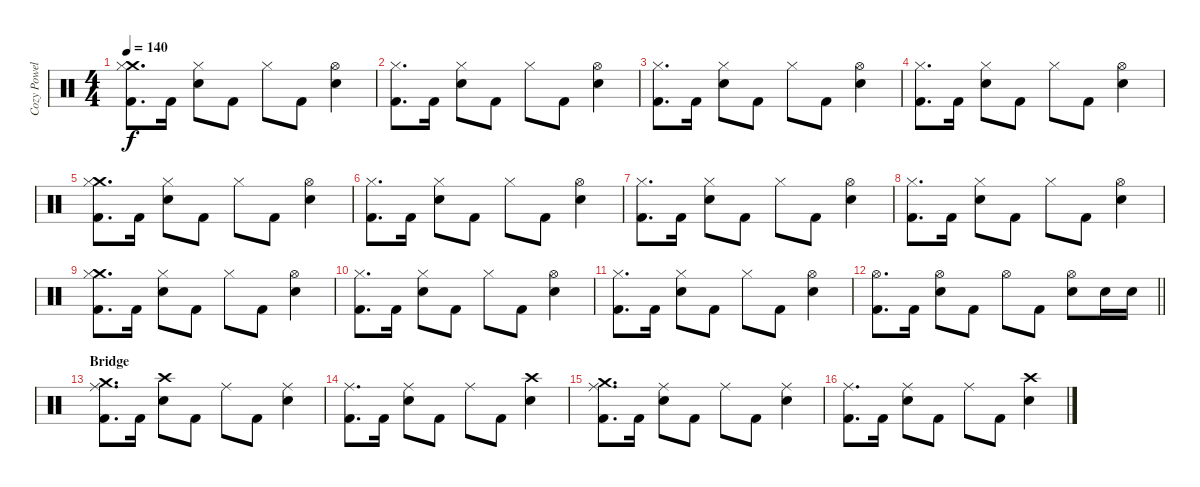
\track ("Cozy Powell" "Cozy Powel") {instrument percussion}
\staff {score}
\articulation defaults
\ts (4 4)
\tempo 140
\clef neutral
\ks c
("Crash medium (hit)" "Hi-Hat (closed)" "Kick (hit) 2").8{d dy f} "Kick (hit) 2".16 ("Hi-Hat (closed)" "Snare (hit) 2").8 "Kick (hit) 2".8 "Hi-Hat (closed)".8 "Kick (hit) 2".8 ("Hi-Hat (open)" "Snare (hit) 2").4 |
("Hi-Hat (closed)" "Kick (hit) 2").8{d} "Kick (hit) 2".16 ("Hi-Hat (closed)" "Snare (hit) 2").8 "Kick (hit) 2".8 "Hi-Hat (closed)".8 "Kick (hit) 2".8 ("Hi-Hat (open)" "Snare (hit) 2").4 |
("Hi-Hat (closed)" "Kick (hit) 2").8{d} "Kick (hit) 2".16 ("Hi-Hat (closed)" "Snare (hit) 2").8 "Kick (hit) 2".8 "Hi-Hat (closed)".8 "Kick (hit) 2".8 ("Hi-Hat (open)" "Snare (hit) 2").4 |
("Hi-Hat (closed)" "Kick (hit) 2").8{d} "Kick (hit) 2".16 ("Hi-Hat (closed)" "Snare (hit) 2").8 "Kick (hit) 2".8 "Hi-Hat (closed)".8 "Kick (hit) 2".8 ("Hi-Hat (open)" "Snare (hit) 2").4 |
("Crash medium (hit)" "Hi-Hat (closed)" "Kick (hit) 2").8{d} "Kick (hit) 2".16 ("Hi-Hat (closed)" "Snare (hit) 2").8 "Kick (hit) 2".8 "Hi-Hat (closed)".8 "Kick (hit) 2".8 ("Hi-Hat (open)" "Snare (hit) 2").4 |
("Hi-Hat (closed)" "Kick (hit) 2").8{d} "Kick (hit) 2".16 ("Hi-Hat (closed)" "Snare (hit) 2").8 "Kick (hit) 2".8 "Hi-Hat (closed)".8 "Kick (hit) 2".8 ("Hi-Hat (open)" "Snare (hit) 2").4 |
("Hi-Hat (closed)" "Kick (hit) 2").8{d} "Kick (hit) 2".16 ("Hi-Hat (closed)" "Snare (hit) 2").8 "Kick (hit) 2".8 "Hi-Hat (closed)".8 "Kick (hit) 2".8 ("Hi-Hat (open)" "Snare (hit) 2").4 |
("Hi-Hat (closed)" "Kick (hit) 2").8{d} "Kick (hit) 2".16 ("Hi-Hat (closed)" "Snare (hit) 2").8 "Kick (hit) 2".8 "Hi-Hat (closed)".8 "Kick (hit) 2".8 ("Hi-Hat (open)" "Snare (hit) 2").4 |
("Crash medium (hit)" "Hi-Hat (closed)" "Kick (hit) 2").8{d} "Kick (hit) 2".16 ("Hi-Hat (closed)" "Snare (hit) 2").8 "Kick (hit) 2".8 "Hi-Hat (closed)".8 "Kick (hit) 2".8 ("Hi-Hat (open)" "Snare (hit) 2").4 |
("Hi-Hat (closed)" "Kick (hit) 2").8{d} "Kick (hit) 2".16 ("Hi-Hat (closed)" "Snare (hit) 2").8 "Kick (hit) 2".8 "Hi-Hat (closed)".8 "Kick (hit) 2".8 ("Hi-Hat (open)" "Snare (hit) 2").4 |
("Hi-Hat (closed)" "Kick (hit) 2").8{d} "Kick (hit) 2".16 ("Hi-Hat (closed)" "Snare (hit) 2").8 "Kick (hit) 2".8 "Hi-Hat (closed)".8 "Kick (hit) 2".8 ("Hi-Hat (open)" "Snare (hit) 2").4 |
\barLineRight lightlight
("Hi-Hat (open)" "Kick (hit) 2").8{d} "Kick (hit) 2".16 ("Hi-Hat (open)" "Snare (hit) 2").8 "Kick (hit) 2".8 "Hi-Hat (open)".8 "Kick (hit) 2".8 ("Hi-Hat (open)" "Snare (hit) 2").8 "Snare (hit) 2".16 "Snare (hit) 2".16 |
\section ("" "Bridge")
("Crash medium (hit)" "Ride (middle)" "Kick (hit) 2").8{d} "Kick (hit) 2".16 ("Crash high (hit)" "Snare (hit) 2").8 "Kick (hit) 2".8 "Ride (middle)".8 "Kick (hit) 2".8 ("Ride (middle)" "Snare (hit) 2").4 |
("Ride (middle)" "Kick (hit) 2").8{d} "Kick (hit) 2".16 ("Ride (middle)" "Snare (hit) 2").8 "Kick (hit) 2".8 "Ride (middle)".8 "Kick (hit) 2".8 ("Crash high (hit)" "Snare (hit) 2").4 |
("Crash medium (hit)" "Ride (middle)" "Kick (hit) 2").8{d} "Kick (hit) 2".16 ("Ride (middle)" "Snare (hit) 2").8 "Kick (hit) 2".8 "Ride (middle)".8 "Kick (hit) 2".8 ("Ride (middle)" "Snare (hit) 2").4 |
("Ride (middle)" "Kick (hit) 2").8{d} "Kick (hit) 2".16 ("Ride (middle)" "Snare (hit) 2").8 "Kick (hit) 2".8 "Ride (middle)".8 "Kick (hit) 2".8 ("Crash high (hit)" "Snare (hit) 2").4
